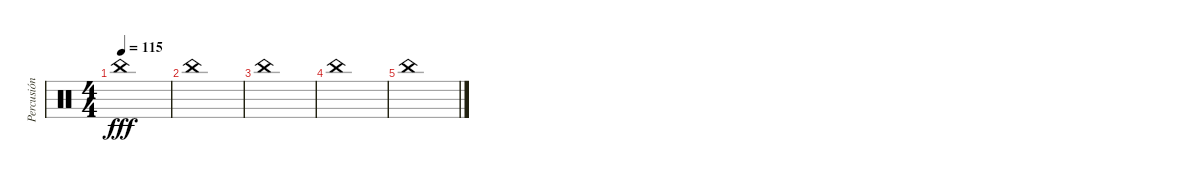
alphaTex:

\track ("Percusión" "Percusión") {instrument percussion}
\staff {score}
\articulation defaults
\ts (4 4)
\tempo 115
\clef neutral
\ks c "China (hit)".1{dy fff}
|
"China (hit)".1 |
"China (hit)".1 |
"China (hit)".1 |
"China (hit)".1
